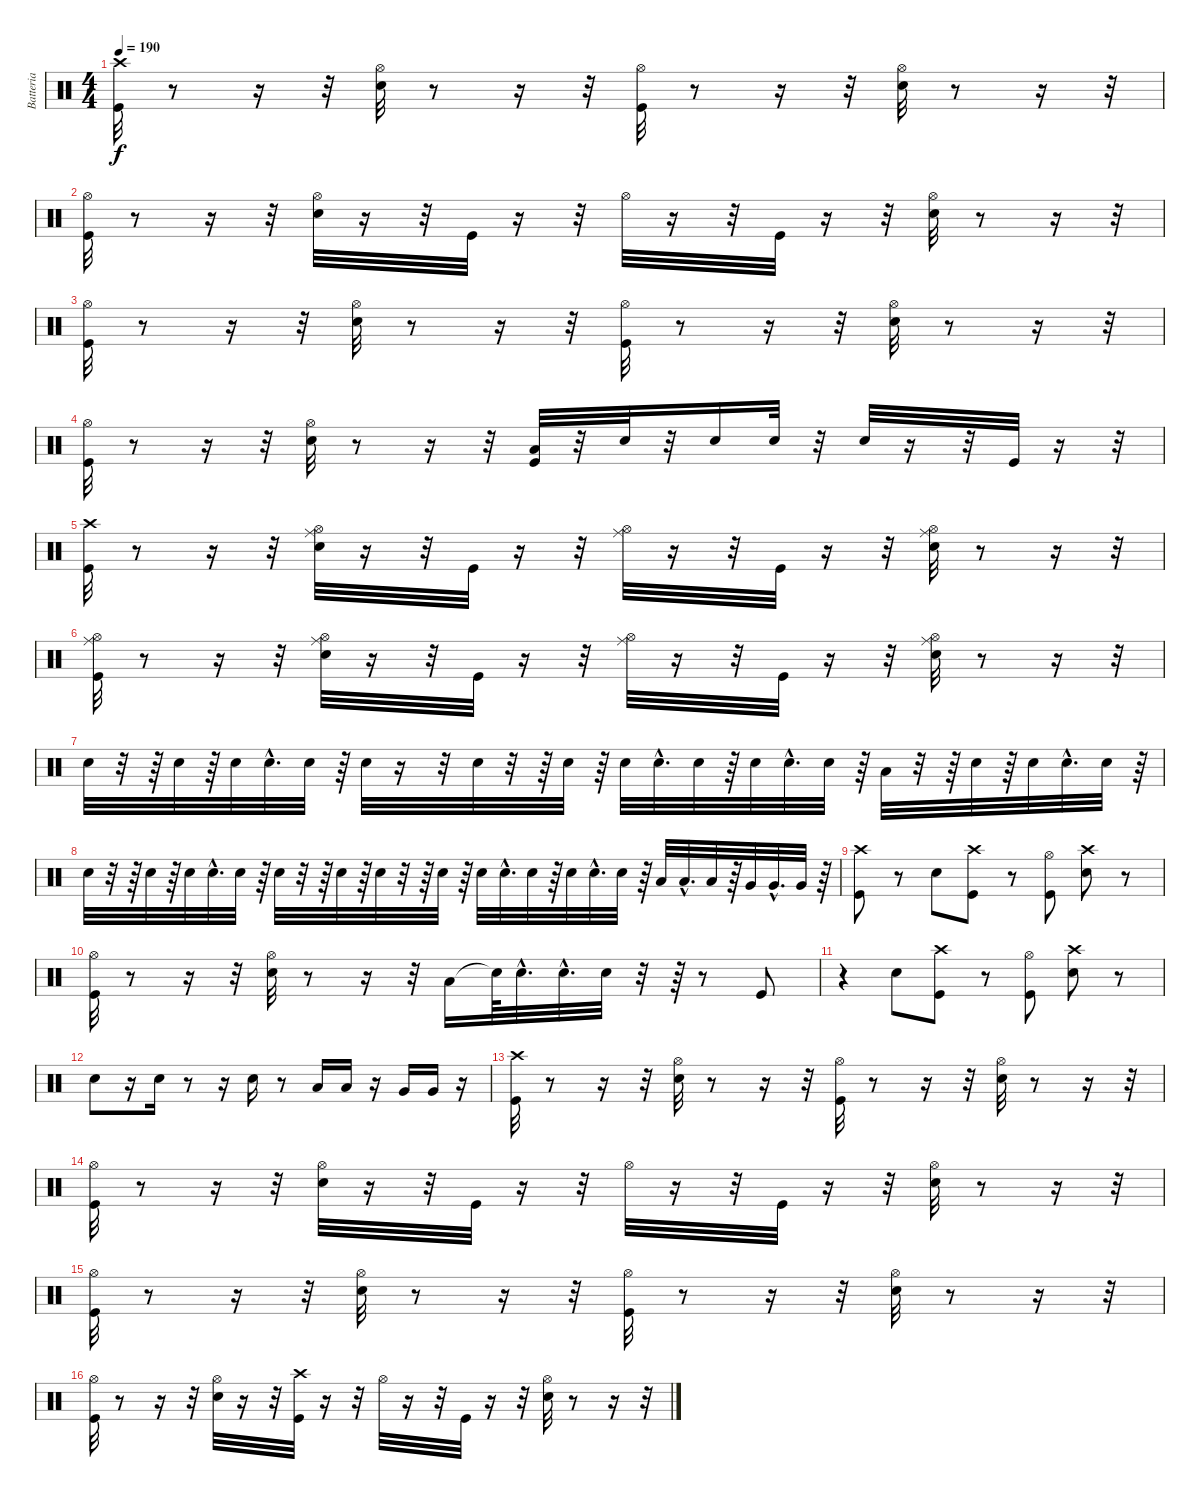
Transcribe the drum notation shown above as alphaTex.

\track ("Batteria" "Batteria") {instrument percussion}
\staff {score}
\articulation defaults
\ts (4 4)
\tempo 190
\clef neutral
\ks c
("Kick (hit)" "Crash high (hit)").32{dy f} r.8 r.16 r.32 ("Hi-Hat (open)" "Snare (hit) 2").32 r.8 r.16 r.32 ("Hi-Hat (open)" "Kick (hit)").32 r.8 r.16 r.32 ("Snare (hit) 2" "Hi-Hat (open)").32 r.8 r.16 r.32 |
("Hi-Hat (open)" "Kick (hit)").32 r.8 r.16 r.32 ("Hi-Hat (open)" "Snare (hit) 2").32 r.16 r.32 "Kick (hit)".32 r.16 r.32 "Hi-Hat (open)".32 r.16 r.32 "Kick (hit)".32 r.16 r.32 ("Hi-Hat (open)" "Snare (hit) 2").32 r.8 r.16 r.32 |
("Kick (hit)" "Hi-Hat (open)").32 r.8 r.16 r.32 ("Hi-Hat (open)" "Snare (hit) 2").32 r.8 r.16 r.32 ("Hi-Hat (open)" "Kick (hit)").32 r.8 r.16 r.32 ("Hi-Hat (open)" "Snare (hit) 2").32 r.8 r.16 r.32 |
("Hi-Hat (open)" "Kick (hit)").32 r.8 r.16 r.32 ("Snare (hit) 2" "Hi-Hat (open)").32 r.8 r.16 r.32 ("Low Tom (hit)" "Kick (hit)").32 r.32 "Snare (hit) 2".32 r.32 "Snare (hit) 2".16 "Snare (hit) 2".32 r.32 "Snare (hit) 2".32 r.16 r.32 "Kick (hit)".32 r.16 r.32 |
("Crash high (hit)" "Kick (hit)").32 r.8 r.16 r.32 ("Hi-Hat (open)" "Snare (hit) 2" "Ride (middle)").32 r.16 r.32 "Kick (hit)".32 r.16 r.32 ("Hi-Hat (open)" "Ride (middle)").32 r.16 r.32 "Kick (hit)".32 r.16 r.32 ("Hi-Hat (open)" "Snare (hit) 2" "Ride (middle)").32 r.8 r.16 r.32 |
("Hi-Hat (open)" "Ride (middle)" "Kick (hit)").32 r.8 r.16 r.32 ("Hi-Hat (open)" "Snare (hit) 2" "Ride (middle)").32 r.16 r.32 "Kick (hit)".32 r.16 r.32 ("Hi-Hat (open)" "Ride (middle)").32 r.16 r.32 "Kick (hit)".32 r.16 r.32 ("Hi-Hat (open)" "Snare (hit) 2" "Ride (middle)").32 r.8 r.16 r.32 |
"Snare (hit) 2".32 r.32 r.64 "Snare (hit) 2".32 r.64 "Snare (hit) 2".32 "Snare (hit) 2"{hac}.32{d} "Snare (hit) 2".32 r.64 "Snare (hit) 2".32 r.16 r.32 "Snare (hit) 2".32 r.32 r.64 "Snare (hit) 2".32 r.64 "Snare (hit) 2".32 "Snare (hit) 2"{hac}.32{d} "Snare (hit) 2".32 r.64 "Snare (hit) 2".32 "Snare (hit) 2"{hac}.32{d} "Snare (hit) 2".32 r.64 "Low Tom (hit)".32 r.32 r.64 "Snare (hit) 2".32 r.64 "Snare (hit) 2".32 "Snare (hit) 2"{hac}.32{d} "Snare (hit) 2".32 r.64 |
"Snare (hit) 2".32 r.32 r.64 "Snare (hit) 2".32 r.64 "Snare (hit) 2".32 "Snare (hit) 2"{hac}.32{d} "Snare (hit) 2".32 r.64 "Snare (hit) 2".32 r.32 r.64 "Snare (hit) 2".32 r.64 "Snare (hit) 2".32 r.32 r.64 "Snare (hit) 2".32 r.64 "Snare (hit) 2".32 "Snare (hit) 2"{hac}.32{d} "Snare (hit) 2".32 r.64 "Snare (hit) 2".32 "Snare (hit) 2"{hac}.32{d} "Snare (hit) 2".32 r.64 "Low Tom (hit)".32 "Low Tom (hit)"{hac}.32{d} "Low Tom (hit)".32 r.64 "Very Low Tom (hit)".32 "Very Low Tom (hit)"{hac}.32{d} "Very Low Tom (hit)".32 r.64 |
("Kick (hit)" "Crash high (hit)").8 r.8 "Snare (hit) 2".8 ("Kick (hit)" "Crash high (hit)").8 r.8 ("Kick (hit)" "Hi-Hat (open)").8 ("Crash high (hit)" "Snare (hit) 2").8 r.8 |
("Hi-Hat (open)" "Kick (hit)").32 r.8 r.16 r.32 ("Snare (hit) 2" "Hi-Hat (open)").32 r.8 r.16 r.32 "Low Tom (hit)".16 "Snare (hit)"{t}.64 "Snare (hit) 2"{hac}.32{d} "Snare (hit) 2"{hac}.32{d} "Snare (hit) 2".32 r.32 r.64 r.8 "Kick (hit)".8 |
r.4 "Snare (hit) 2".8 ("Kick (hit)" "Crash high (hit)").8 r.8 ("Hi-Hat (open)" "Kick (hit)").8 ("Snare (hit) 2" "Crash high (hit)").8 r.8 |
"Snare (hit) 2".8 r.16 "Snare (hit) 2".16 r.8 r.16 "Snare (hit) 2".16 r.8 "Low Tom (hit)".16 "Low Tom (hit)".16 r.16 "Very Low Tom (hit)".16 "Very Low Tom (hit)".16 r.16 |
("Crash high (hit)" "Kick (hit)").32 r.8 r.16 r.32 ("Snare (hit) 2" "Hi-Hat (open)").32 r.8 r.16 r.32 ("Hi-Hat (open)" "Kick (hit)").32 r.8 r.16 r.32 ("Snare (hit) 2" "Hi-Hat (open)").32 r.8 r.16 r.32 |
("Kick (hit)" "Hi-Hat (open)").32 r.8 r.16 r.32 ("Hi-Hat (open)" "Snare (hit) 2").32 r.16 r.32 "Kick (hit)".32 r.16 r.32 "Hi-Hat (open)".32 r.16 r.32 "Kick (hit)".32 r.16 r.32 ("Hi-Hat (open)" "Snare (hit) 2").32 r.8 r.16 r.32 |
("Hi-Hat (open)" "Kick (hit)").32 r.8 r.16 r.32 ("Snare (hit) 2" "Hi-Hat (open)").32 r.8 r.16 r.32 ("Kick (hit)" "Hi-Hat (open)").32 r.8 r.16 r.32 ("Hi-Hat (open)" "Snare (hit) 2").32 r.8 r.16 r.32 |
("Hi-Hat (open)" "Kick (hit)").32 r.8 r.16 r.32 ("Hi-Hat (open)" "Snare (hit) 2").32 r.16 r.32 ("Crash high (hit)" "Kick (hit)").32 r.16 r.32 "Hi-Hat (open)".32 r.16 r.32 "Kick (hit)".32 r.16 r.32 ("Hi-Hat (open)" "Snare (hit) 2").32 r.8 r.16 r.32
